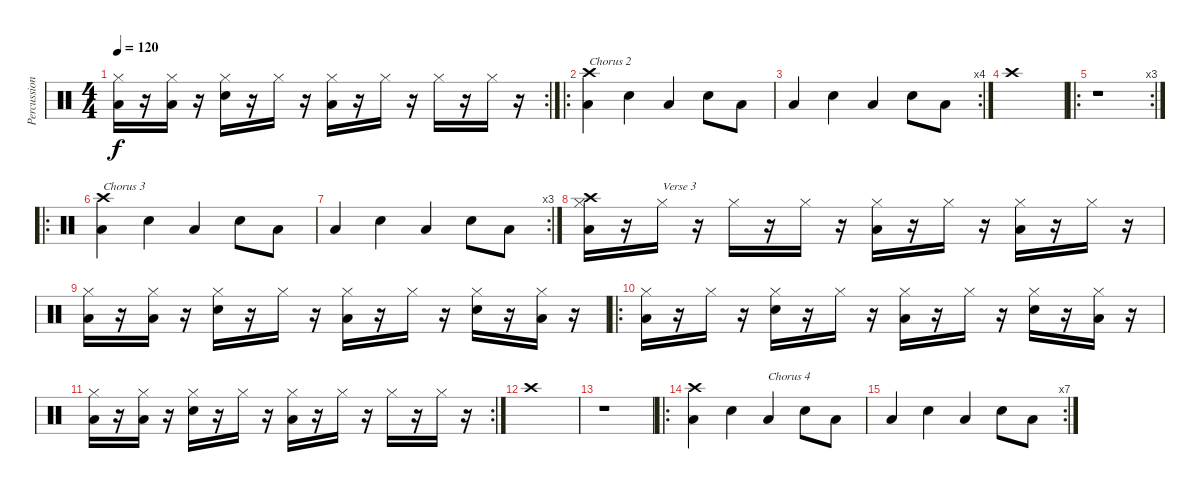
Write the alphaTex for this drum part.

\track ("Percussion" "Percussion") {instrument percussion}
\staff {score}
\articulation defaults
\rc 2
\ts (4 4)
\tempo 120
\clef neutral
\ks c
("Hi-Hat (closed)" "Low Tom (hit)").16{dy f} r.16 ("Hi-Hat (closed)" "Low Tom (hit)").16 r.16 ("Hi-Hat (closed)" "Electric Snare (hit)").16 r.16 "Hi-Hat (closed)".16 r.16 ("Hi-Hat (closed)" "Low Tom (hit)").16 r.16 "Hi-Hat (closed)".16 r.16 "Hi-Hat (closed)".16 r.16 "Hi-Hat (closed)".16 r.16 |
\ro
("Crash high (hit)" "Low Tom (hit)").4{txt "Chorus 2"} "Electric Snare (hit)".4 "Low Tom (hit)".4 "Electric Snare (hit)".8 "Low Tom (hit)".8 |
\rc 4 "Low Tom (hit)".4 "Electric Snare (hit)".4 "Low Tom (hit)".4 "Electric Snare (hit)".8 "Low Tom (hit)".8
|
"Crash high (hit)".1 |
\ro
\rc 3
r.1 |
\ro
("Crash high (hit)" "Low Tom (hit)").4{txt "Chorus 3"} "Electric Snare (hit)".4 "Low Tom (hit)".4 "Electric Snare (hit)".8 "Low Tom (hit)".8 |
\rc 3 "Low Tom (hit)".4 "Electric Snare (hit)".4 "Low Tom (hit)".4 "Electric Snare (hit)".8 "Low Tom (hit)".8
|
("Crash high (hit)" "Hi-Hat (closed)" "Low Tom (hit)").16 r.16 "Hi-Hat (closed)".16{txt "Verse 3"} r.16 "Hi-Hat (closed)".16 r.16 "Hi-Hat (closed)".16 r.16 ("Hi-Hat (closed)" "Low Tom (hit)").16 r.16 "Hi-Hat (closed)".16 r.16 ("Hi-Hat (closed)" "Low Tom (hit)").16 r.16 "Hi-Hat (closed)".16 r.16 |
("Hi-Hat (closed)" "Low Tom (hit)").16 r.16 ("Hi-Hat (closed)" "Low Tom (hit)").16 r.16 ("Hi-Hat (closed)" "Electric Snare (hit)").16 r.16 "Hi-Hat (closed)".16 r.16 ("Hi-Hat (closed)" "Low Tom (hit)").16 r.16 "Hi-Hat (closed)".16 r.16 ("Hi-Hat (closed)" "Electric Snare (hit)").16 r.16 ("Hi-Hat (closed)" "Low Tom (hit)").16 r.16 |
\ro
("Hi-Hat (closed)" "Low Tom (hit)").16 r.16 "Hi-Hat (closed)".16 r.16 ("Hi-Hat (closed)" "Electric Snare (hit)").16 r.16 "Hi-Hat (closed)".16 r.16 ("Hi-Hat (closed)" "Low Tom (hit)").16 r.16 "Hi-Hat (closed)".16 r.16 ("Hi-Hat (closed)" "Electric Snare (hit)").16 r.16 ("Hi-Hat (closed)" "Low Tom (hit)").16 r.16 |
\rc 2
("Hi-Hat (closed)" "Low Tom (hit)").16 r.16 ("Hi-Hat (closed)" "Low Tom (hit)").16 r.16 ("Hi-Hat (closed)" "Electric Snare (hit)").16 r.16 "Hi-Hat (closed)".16 r.16 ("Hi-Hat (closed)" "Low Tom (hit)").16 r.16 "Hi-Hat (closed)".16 r.16 "Hi-Hat (closed)".16 r.16 "Hi-Hat (closed)".16 r.16 |
"Crash high (hit)".1 |
r.1 |
\ro
("Crash high (hit)" "Low Tom (hit)").4 "Electric Snare (hit)".4 "Low Tom (hit)".4{txt "Chorus 4"} "Electric Snare (hit)".8 "Low Tom (hit)".8 |
\rc 7 "Low Tom (hit)".4 "Electric Snare (hit)".4 "Low Tom (hit)".4 "Electric Snare (hit)".8 "Low Tom (hit)".8
